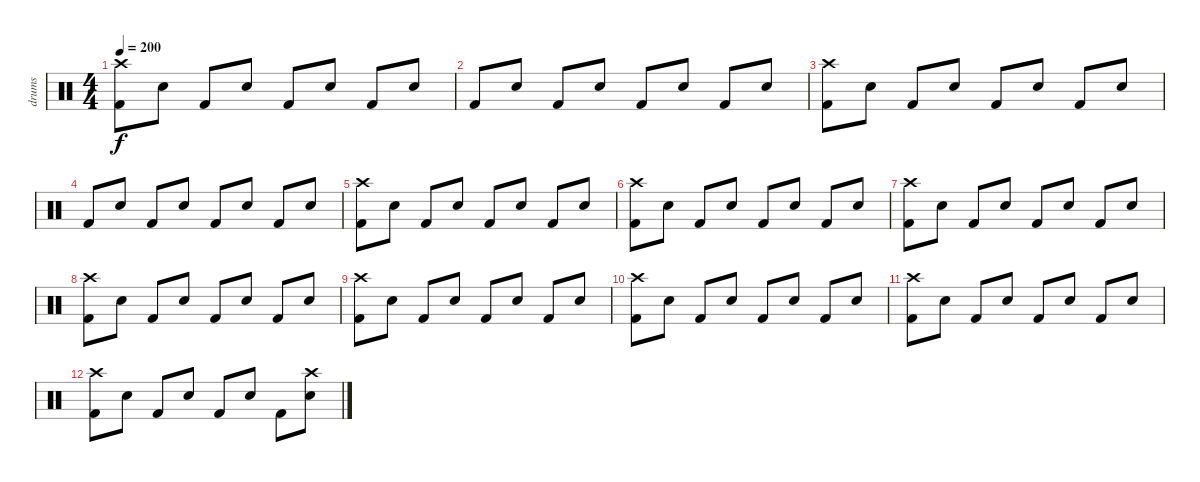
\track ("drums" "drums") {instrument percussion}
\staff {score}
\articulation defaults
\ts (4 4)
\tempo 200
\clef neutral
\ks c
("Crash high (hit)" "Kick (hit) 2").8{dy f} "Electric Snare (hit)".8 "Kick (hit) 2".8 "Electric Snare (hit)".8 "Kick (hit) 2".8 "Electric Snare (hit)".8 "Kick (hit) 2".8 "Electric Snare (hit)".8 |
"Kick (hit) 2".8 "Electric Snare (hit)".8 "Kick (hit) 2".8 "Electric Snare (hit)".8 "Kick (hit) 2".8 "Electric Snare (hit)".8 "Kick (hit) 2".8 "Electric Snare (hit)".8 |
("Crash high (hit)" "Kick (hit) 2").8 "Electric Snare (hit)".8 "Kick (hit) 2".8 "Electric Snare (hit)".8 "Kick (hit) 2".8 "Electric Snare (hit)".8 "Kick (hit) 2".8 "Electric Snare (hit)".8 |
"Kick (hit) 2".8 "Electric Snare (hit)".8 "Kick (hit) 2".8 "Electric Snare (hit)".8 "Kick (hit) 2".8 "Electric Snare (hit)".8 "Kick (hit) 2".8 "Electric Snare (hit)".8 |
("Crash high (hit)" "Kick (hit) 2").8 "Electric Snare (hit)".8 "Kick (hit) 2".8 "Electric Snare (hit)".8 "Kick (hit) 2".8 "Electric Snare (hit)".8 "Kick (hit) 2".8 "Electric Snare (hit)".8 |
("Crash high (hit)" "Kick (hit) 2").8 "Electric Snare (hit)".8 "Kick (hit) 2".8 "Electric Snare (hit)".8 "Kick (hit) 2".8 "Electric Snare (hit)".8 "Kick (hit) 2".8 "Electric Snare (hit)".8 |
("Crash high (hit)" "Kick (hit) 2").8 "Electric Snare (hit)".8 "Kick (hit) 2".8 "Electric Snare (hit)".8 "Kick (hit) 2".8 "Electric Snare (hit)".8 "Kick (hit) 2".8 "Electric Snare (hit)".8 |
("Crash high (hit)" "Kick (hit) 2").8 "Electric Snare (hit)".8 "Kick (hit) 2".8 "Electric Snare (hit)".8 "Kick (hit) 2".8 "Electric Snare (hit)".8 "Kick (hit) 2".8 "Electric Snare (hit)".8 |
("Crash high (hit)" "Kick (hit) 2").8 "Electric Snare (hit)".8 "Kick (hit) 2".8 "Electric Snare (hit)".8 "Kick (hit) 2".8 "Electric Snare (hit)".8 "Kick (hit) 2".8 "Electric Snare (hit)".8 |
("Crash high (hit)" "Kick (hit) 2").8 "Electric Snare (hit)".8 "Kick (hit) 2".8 "Electric Snare (hit)".8 "Kick (hit) 2".8 "Electric Snare (hit)".8 "Kick (hit) 2".8 "Electric Snare (hit)".8 |
("Crash high (hit)" "Kick (hit) 2").8 "Electric Snare (hit)".8 "Kick (hit) 2".8 "Electric Snare (hit)".8 "Kick (hit) 2".8 "Electric Snare (hit)".8 "Kick (hit) 2".8 "Electric Snare (hit)".8 |
("Crash high (hit)" "Kick (hit) 2").8 "Electric Snare (hit)".8 "Kick (hit) 2".8 "Electric Snare (hit)".8 "Kick (hit) 2".8 "Electric Snare (hit)".8 "Kick (hit) 2".8 ("Crash high (hit)" "Electric Snare (hit)").8
